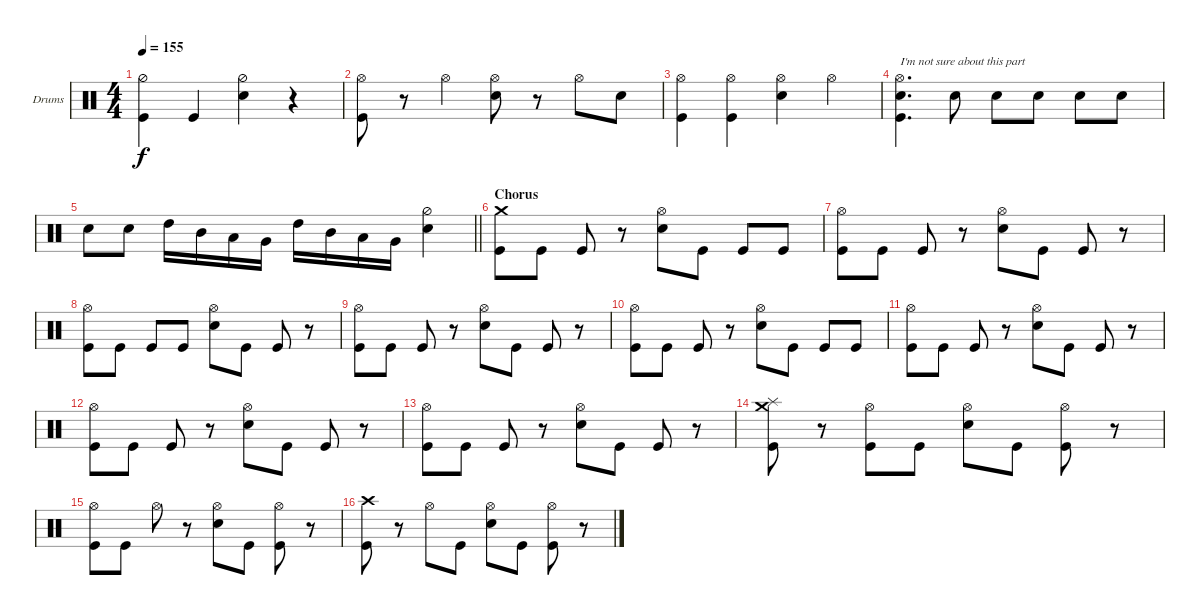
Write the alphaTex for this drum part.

\defaultSystemsLayout 4
\bracketExtendMode groupsimilarinstruments
\firstSystemTrackNameOrientation horizontal
\otherSystemsTrackNameOrientation horizontal
\track ("Drumkit" "Drums") {instrument percussion}
\staff {score}
\articulation defaults
\ts (4 4)
\tempo 155
\clef neutral
\ks c
("Hi-Hat (half)" "Kick (hit)").4{dy f} "Kick (hit)".4 ("Hi-Hat (half)" "Snare (hit) 2").4 r.4 |
("Kick (hit)" "Hi-Hat (open)").8 r.8 "Hi-Hat (open)".4 ("Hi-Hat (open)" "Snare (hit) 2").8 r.8 "Hi-Hat (open)".8 "Snare (hit) 2".8 |
("Kick (hit)" "Hi-Hat (open)").4 ("Kick (hit)" "Hi-Hat (open)").4 ("Snare (hit) 2" "Hi-Hat (open)").4 "Hi-Hat (open)".4 |
("Snare (hit) 2" "Kick (hit)" "Hi-Hat (open)").4{d txt "I'm not sure about this part"} "Snare (hit) 2".8 "Snare (hit) 2".8 "Snare (hit) 2".8 "Snare (hit) 2".8 "Snare (hit) 2".8 |
\barLineRight lightlight "Snare (hit) 2".8 "Snare (hit) 2".8 "High Tom (hit)".16 "Mid Tom (hit)".16 "Low Tom (hit)".16 "Very Low Tom (hit)".16 "High Tom (hit)".16 "Mid Tom (hit)".16 "Low Tom (hit)".16 "Very Low Tom (hit)".16
("Snare (hit) 2" "Hi-Hat (half)").4 |
\section ("" "Chorus")
("Crash medium (hit)" "Kick (hit)").8 "Kick (hit)".8 "Kick (hit)".8 r.8 ("Snare (hit) 2" "Hi-Hat (open)").8 "Kick (hit)".8 "Kick (hit)".8 "Kick (hit)".8 |
("Kick (hit)" "Hi-Hat (open)").8 "Kick (hit)".8 "Kick (hit)".8 r.8 ("Snare (hit) 2" "Hi-Hat (open)").8 "Kick (hit)".8 "Kick (hit)".8 r.8 |
("Kick (hit)" "Hi-Hat (open)").8 "Kick (hit)".8 "Kick (hit)".8 "Kick (hit)".8 ("Snare (hit) 2" "Hi-Hat (open)").8 "Kick (hit)".8 "Kick (hit)".8 r.8 |
("Kick (hit)" "Hi-Hat (open)").8 "Kick (hit)".8 "Kick (hit)".8 r.8 ("Snare (hit) 2" "Hi-Hat (open)").8 "Kick (hit)".8 "Kick (hit)".8 r.8 |
("Kick (hit)" "Hi-Hat (open)").8 "Kick (hit)".8 "Kick (hit)".8 r.8 ("Snare (hit) 2" "Hi-Hat (open)").8 "Kick (hit)".8 "Kick (hit)".8 "Kick (hit)".8 |
("Kick (hit)" "Hi-Hat (open)").8 "Kick (hit)".8 "Kick (hit)".8 r.8 ("Snare (hit) 2" "Hi-Hat (open)").8 "Kick (hit)".8 "Kick (hit)".8 r.8 |
("Kick (hit)" "Hi-Hat (open)").8 "Kick (hit)".8 "Kick (hit)".8 r.8 ("Snare (hit) 2" "Hi-Hat (open)").8 "Kick (hit)".8 "Kick (hit)".8 r.8 |
("Kick (hit)" "Hi-Hat (open)").8 "Kick (hit)".8 "Kick (hit)".8 r.8 ("Snare (hit) 2" "Hi-Hat (open)").8 "Kick (hit)".8 "Kick (hit)".8 r.8 |
("Splash (hit)" "Crash medium (hit)" "Kick (hit)").8 r.8 ("Hi-Hat (open)" "Kick (hit)").8 "Kick (hit)".8 ("Hi-Hat (open)" "Snare (hit) 2").8 "Kick (hit)".8 ("Hi-Hat (open)" "Kick (hit)").8 r.8 |
("Hi-Hat (open)" "Kick (hit)").8 "Kick (hit)".8 "Hi-Hat (open)".8 r.8 ("Hi-Hat (open)" "Snare (hit) 2").8 "Kick (hit)".8 ("Hi-Hat (open)" "Kick (hit)").8 r.8 |
("Crash high (hit)" "Kick (hit)").8 r.8 "Hi-Hat (open)".8 "Kick (hit)".8 ("Hi-Hat (open)" "Snare (hit) 2").8 "Kick (hit)".8 ("Hi-Hat (open)" "Kick (hit)").8 r.8
